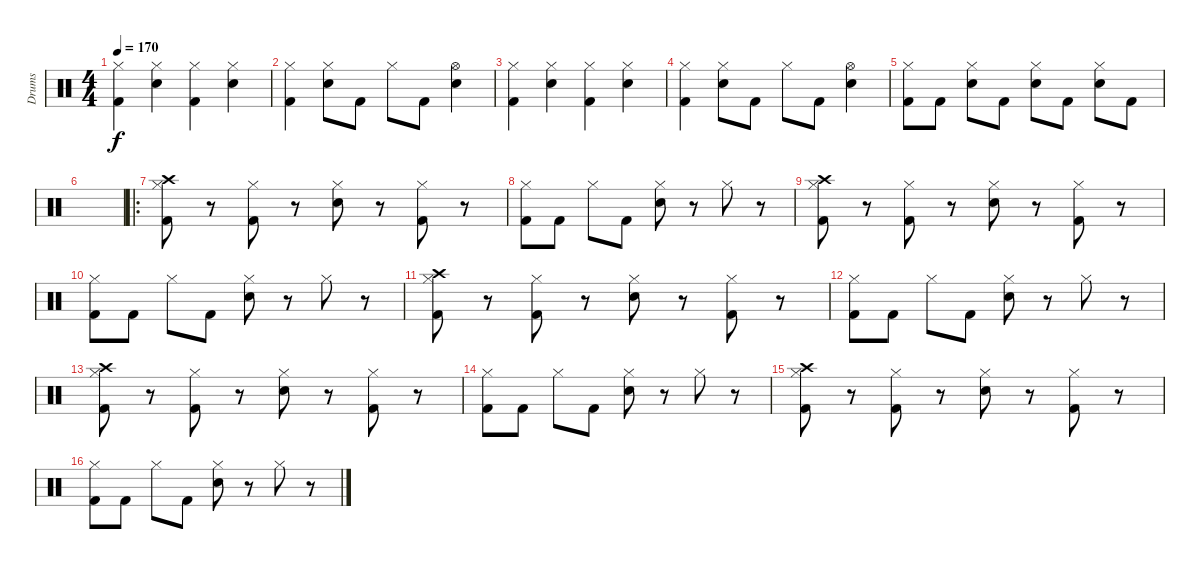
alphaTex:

\track ("Drums" "Drums") {instrument percussion}
\staff {score}
\articulation defaults
\ts (4 4)
\tempo 170
\clef neutral
\ks c
("Hi-Hat (closed)" "Kick (hit) 2").4{dy f} ("Hi-Hat (closed)" "Snare (hit) 2").4 ("Hi-Hat (closed)" "Kick (hit) 2").4 ("Hi-Hat (closed)" "Snare (hit) 2").4 |
("Hi-Hat (closed)" "Kick (hit) 2").4 ("Hi-Hat (closed)" "Snare (hit) 2").8 "Kick (hit) 2".8 "Hi-Hat (closed)".8 "Kick (hit) 2".8 ("Hi-Hat (open)" "Snare (hit) 2").4 |
("Hi-Hat (closed)" "Kick (hit) 2").4 ("Hi-Hat (closed)" "Snare (hit) 2").4 ("Hi-Hat (closed)" "Kick (hit) 2").4 ("Hi-Hat (closed)" "Snare (hit) 2").4 |
("Hi-Hat (closed)" "Kick (hit) 2").4 ("Hi-Hat (closed)" "Snare (hit) 2").8 "Kick (hit) 2".8 "Hi-Hat (closed)".8 "Kick (hit) 2".8 ("Hi-Hat (open)" "Snare (hit) 2").4 |
("Hi-Hat (closed)" "Kick (hit) 2").8 "Kick (hit) 2".8 ("Hi-Hat (closed)" "Snare (hit) 2").8 "Kick (hit) 2".8 ("Hi-Hat (closed)" "Snare (hit) 2").8 "Kick (hit) 2".8 ("Hi-Hat (closed)" "Snare (hit) 2").8 "Kick (hit) 2".8 |
|
\ro
("Crash high (hit)" "Hi-Hat (closed)" "Kick (hit) 2").8 r.8 ("Hi-Hat (closed)" "Kick (hit) 2").8 r.8 ("Hi-Hat (closed)" "Snare (hit) 2").8 r.8 ("Hi-Hat (closed)" "Kick (hit) 2").8 r.8 |
("Hi-Hat (closed)" "Kick (hit) 2").8 "Kick (hit) 2".8 "Hi-Hat (closed)".8 "Kick (hit) 2".8 ("Hi-Hat (closed)" "Snare (hit) 2").8 r.8 "Hi-Hat (closed)".8 r.8 |
("Crash high (hit)" "Hi-Hat (closed)" "Kick (hit) 2").8 r.8 ("Hi-Hat (closed)" "Kick (hit) 2").8 r.8 ("Hi-Hat (closed)" "Snare (hit) 2").8 r.8 ("Hi-Hat (closed)" "Kick (hit) 2").8 r.8 |
("Hi-Hat (closed)" "Kick (hit) 2").8 "Kick (hit) 2".8 "Hi-Hat (closed)".8 "Kick (hit) 2".8 ("Hi-Hat (closed)" "Snare (hit) 2").8 r.8 "Hi-Hat (closed)".8 r.8 |
("Crash high (hit)" "Hi-Hat (closed)" "Kick (hit) 2").8 r.8 ("Hi-Hat (closed)" "Kick (hit) 2").8 r.8 ("Hi-Hat (closed)" "Snare (hit) 2").8 r.8 ("Hi-Hat (closed)" "Kick (hit) 2").8 r.8 |
("Hi-Hat (closed)" "Kick (hit) 2").8 "Kick (hit) 2".8 "Hi-Hat (closed)".8 "Kick (hit) 2".8 ("Hi-Hat (closed)" "Snare (hit) 2").8 r.8 "Hi-Hat (closed)".8 r.8 |
("Crash high (hit)" "Hi-Hat (closed)" "Kick (hit) 2").8 r.8 ("Hi-Hat (closed)" "Kick (hit) 2").8 r.8 ("Hi-Hat (closed)" "Snare (hit) 2").8 r.8 ("Hi-Hat (closed)" "Kick (hit) 2").8 r.8 |
("Hi-Hat (closed)" "Kick (hit) 2").8 "Kick (hit) 2".8 "Hi-Hat (closed)".8 "Kick (hit) 2".8 ("Hi-Hat (closed)" "Snare (hit) 2").8 r.8 "Hi-Hat (closed)".8 r.8 |
("Crash high (hit)" "Hi-Hat (closed)" "Kick (hit) 2").8 r.8 ("Hi-Hat (closed)" "Kick (hit) 2").8 r.8 ("Hi-Hat (closed)" "Snare (hit) 2").8 r.8 ("Hi-Hat (closed)" "Kick (hit) 2").8 r.8 |
("Hi-Hat (closed)" "Kick (hit) 2").8 "Kick (hit) 2".8 "Hi-Hat (closed)".8 "Kick (hit) 2".8 ("Hi-Hat (closed)" "Snare (hit) 2").8 r.8 "Hi-Hat (closed)".8 r.8
